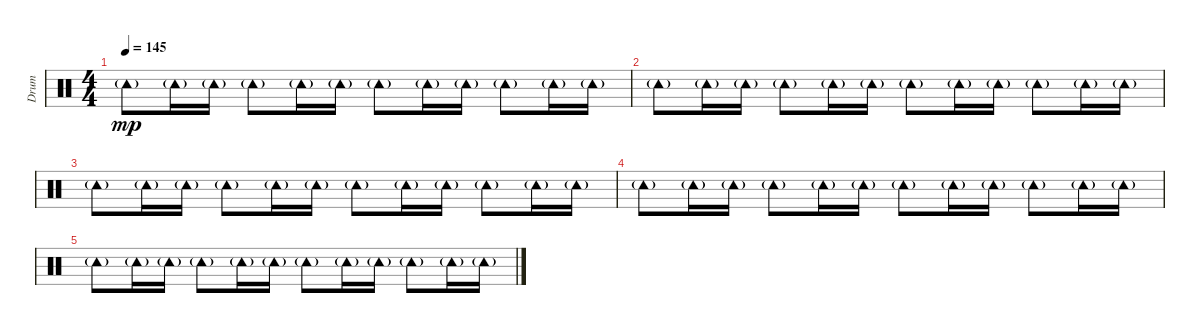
\track ("Drum" "Drum") {instrument percussion bank 4}
\staff {score}
\articulation defaults
\ts (4 4)
\tempo 145
\clef neutral
\ks c "Tambourine (hit)"{g}.8{dy mp} "Tambourine (hit)"{g}.16 "Tambourine (hit)"{g}.16 "Tambourine (hit)"{g}.8 "Tambourine (hit)"{g}.16 "Tambourine (hit)"{g}.16 "Tambourine (hit)"{g}.8 "Tambourine (hit)"{g}.16 "Tambourine (hit)"{g}.16 "Tambourine (hit)"{g}.8 "Tambourine (hit)"{g}.16 "Tambourine (hit)"{g}.16
|
"Tambourine (hit)"{g}.8 "Tambourine (hit)"{g}.16 "Tambourine (hit)"{g}.16 "Tambourine (hit)"{g}.8 "Tambourine (hit)"{g}.16 "Tambourine (hit)"{g}.16 "Tambourine (hit)"{g}.8 "Tambourine (hit)"{g}.16 "Tambourine (hit)"{g}.16 "Tambourine (hit)"{g}.8 "Tambourine (hit)"{g}.16 "Tambourine (hit)"{g}.16 |
"Tambourine (hit)"{g}.8 "Tambourine (hit)"{g}.16 "Tambourine (hit)"{g}.16 "Tambourine (hit)"{g}.8 "Tambourine (hit)"{g}.16 "Tambourine (hit)"{g}.16 "Tambourine (hit)"{g}.8 "Tambourine (hit)"{g}.16 "Tambourine (hit)"{g}.16 "Tambourine (hit)"{g}.8 "Tambourine (hit)"{g}.16 "Tambourine (hit)"{g}.16 |
"Tambourine (hit)"{g}.8 "Tambourine (hit)"{g}.16 "Tambourine (hit)"{g}.16 "Tambourine (hit)"{g}.8 "Tambourine (hit)"{g}.16 "Tambourine (hit)"{g}.16 "Tambourine (hit)"{g}.8 "Tambourine (hit)"{g}.16 "Tambourine (hit)"{g}.16 "Tambourine (hit)"{g}.8 "Tambourine (hit)"{g}.16 "Tambourine (hit)"{g}.16 |
"Tambourine (hit)"{g}.8 "Tambourine (hit)"{g}.16 "Tambourine (hit)"{g}.16 "Tambourine (hit)"{g}.8 "Tambourine (hit)"{g}.16 "Tambourine (hit)"{g}.16 "Tambourine (hit)"{g}.8 "Tambourine (hit)"{g}.16 "Tambourine (hit)"{g}.16 "Tambourine (hit)"{g}.8 "Tambourine (hit)"{g}.16 "Tambourine (hit)"{g}.16
